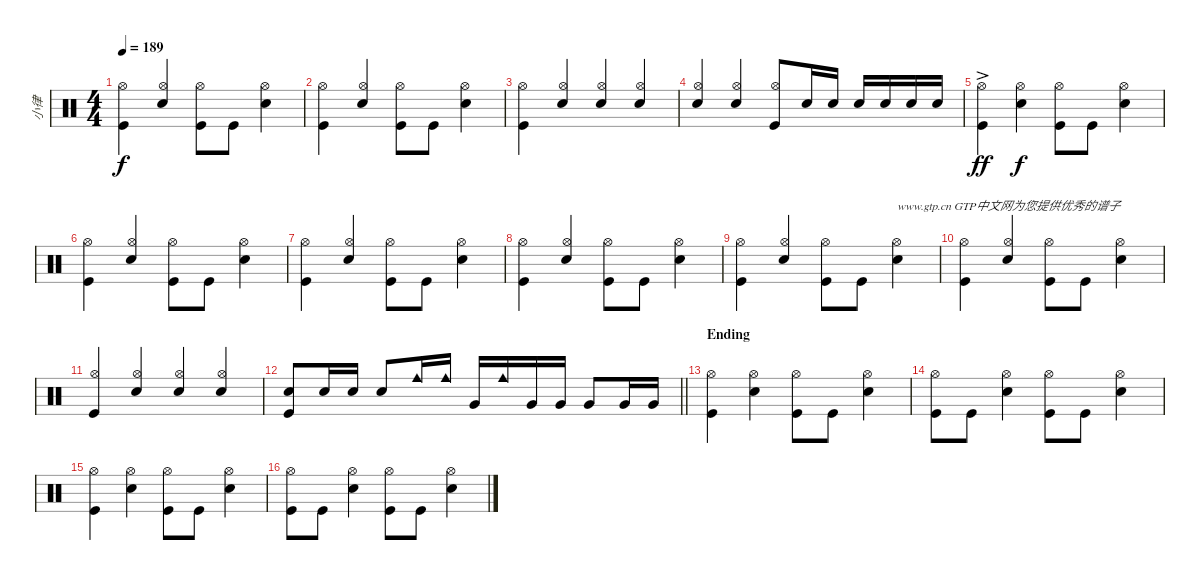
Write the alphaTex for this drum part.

\track ("小律" "小律") {instrument percussion}
\staff {score}
\articulation defaults
\ts (4 4)
\tempo 189
\clef neutral
\ks c
("Hi-Hat (open)" "Kick (hit)").4{dy f} ("Hi-Hat (open)" "Snare (hit) 2").4{beam Up} ("Hi-Hat (open)" "Kick (hit)").8 "Kick (hit)".8 ("Hi-Hat (open)" "Snare (hit) 2").4 |
("Hi-Hat (open)" "Kick (hit)").4 ("Hi-Hat (open)" "Snare (hit) 2").4{beam Up} ("Hi-Hat (open)" "Kick (hit)").8 "Kick (hit)".8 ("Hi-Hat (open)" "Snare (hit) 2").4 |
("Kick (hit)" "Hi-Hat (open)").4 ("Snare (hit) 2" "Hi-Hat (open)").4{beam Up} ("Snare (hit) 2" "Hi-Hat (open)").4{beam Up} ("Snare (hit) 2" "Hi-Hat (open)").4{beam Up} |
("Hi-Hat (open)" "Snare (hit) 2").4{beam Up} ("Hi-Hat (open)" "Snare (hit) 2").4{beam Up} ("Hi-Hat (open)" "Kick (hit)").8{beam Up} "Snare (hit) 2".16{beam Up} "Snare (hit) 2".16{beam Up} "Snare (hit) 2".16{beam Up} "Snare (hit) 2".16{beam Up} "Snare (hit) 2".16{beam Up} "Snare (hit) 2".16{beam Up} |
("Hi-Hat (open)" "Kick (hit)"{ac}).4{dy ff} ("Hi-Hat (open)" "Snare (hit) 2").4{dy f} ("Hi-Hat (open)" "Kick (hit)").8 "Kick (hit)".8 ("Hi-Hat (open)" "Snare (hit) 2").4 |
("Hi-Hat (open)" "Kick (hit)").4 ("Hi-Hat (open)" "Snare (hit) 2").4{beam Up} ("Hi-Hat (open)" "Kick (hit)").8 "Kick (hit)".8 ("Hi-Hat (open)" "Snare (hit) 2").4 |
("Hi-Hat (open)" "Kick (hit)").4 ("Hi-Hat (open)" "Snare (hit) 2").4{beam Up} ("Hi-Hat (open)" "Kick (hit)").8 "Kick (hit)".8 ("Hi-Hat (open)" "Snare (hit) 2").4 |
("Hi-Hat (open)" "Kick (hit)").4 ("Hi-Hat (open)" "Snare (hit) 2").4{beam Up} ("Hi-Hat (open)" "Kick (hit)").8 "Kick (hit)".8 ("Hi-Hat (open)" "Snare (hit) 2").4 |
("Hi-Hat (open)" "Kick (hit)").4 ("Hi-Hat (open)" "Snare (hit) 2").4{beam Up} ("Hi-Hat (open)" "Kick (hit)").8 "Kick (hit)".8 ("Hi-Hat (open)" "Snare (hit) 2").4{txt "www.gtp.cn GTP中文网为您提供优秀的谱子"} |
("Hi-Hat (open)" "Kick (hit)").4 ("Hi-Hat (open)" "Snare (hit) 2").4{beam Up} ("Hi-Hat (open)" "Kick (hit)").8 "Kick (hit)".8 ("Hi-Hat (open)" "Snare (hit) 2").4 |
("Kick (hit)" "Hi-Hat (open)").4{beam Up} ("Snare (hit) 2" "Hi-Hat (open)").4{beam Up} ("Snare (hit) 2" "Hi-Hat (open)").4{beam Up} ("Snare (hit) 2" "Hi-Hat (open)").4{beam Up} |
\barLineRight lightlight
("Kick (hit)" "Snare (hit) 2").8 "Snare (hit) 2".16 "Snare (hit) 2".16 "Snare (hit) 2".8{beam Up} "Cowbell medium (hit)".16{beam Up} "Cowbell medium (hit)".16{beam Up} "Very Low Tom (hit)".16{beam Up} "Cowbell medium (hit)".16{beam Up} "Very Low Tom (hit)".16{beam Up} "Very Low Tom (hit)".16{beam Up} "Very Low Tom (hit)".8 "Very Low Tom (hit)".16 "Very Low Tom (hit)".16 |
\section ("" "Ending")
("Kick (hit)" "Hi-Hat (open)").4 ("Snare (hit) 2" "Hi-Hat (open)").4 ("Hi-Hat (open)" "Kick (hit)").8 "Kick (hit)".8 ("Hi-Hat (open)" "Snare (hit) 2").4 |
("Hi-Hat (open)" "Kick (hit)").8 "Kick (hit)".8 ("Hi-Hat (open)" "Snare (hit) 2").4 ("Hi-Hat (open)" "Kick (hit)").8 "Kick (hit)".8 ("Hi-Hat (open)" "Snare (hit) 2").4 |
("Kick (hit)" "Hi-Hat (open)").4 ("Snare (hit) 2" "Hi-Hat (open)").4 ("Hi-Hat (open)" "Kick (hit)").8 "Kick (hit)".8 ("Hi-Hat (open)" "Snare (hit) 2").4 |
("Hi-Hat (open)" "Kick (hit)").8 "Kick (hit)".8 ("Hi-Hat (open)" "Snare (hit) 2").4 ("Hi-Hat (open)" "Kick (hit)").8 "Kick (hit)".8 ("Hi-Hat (open)" "Snare (hit) 2").4
